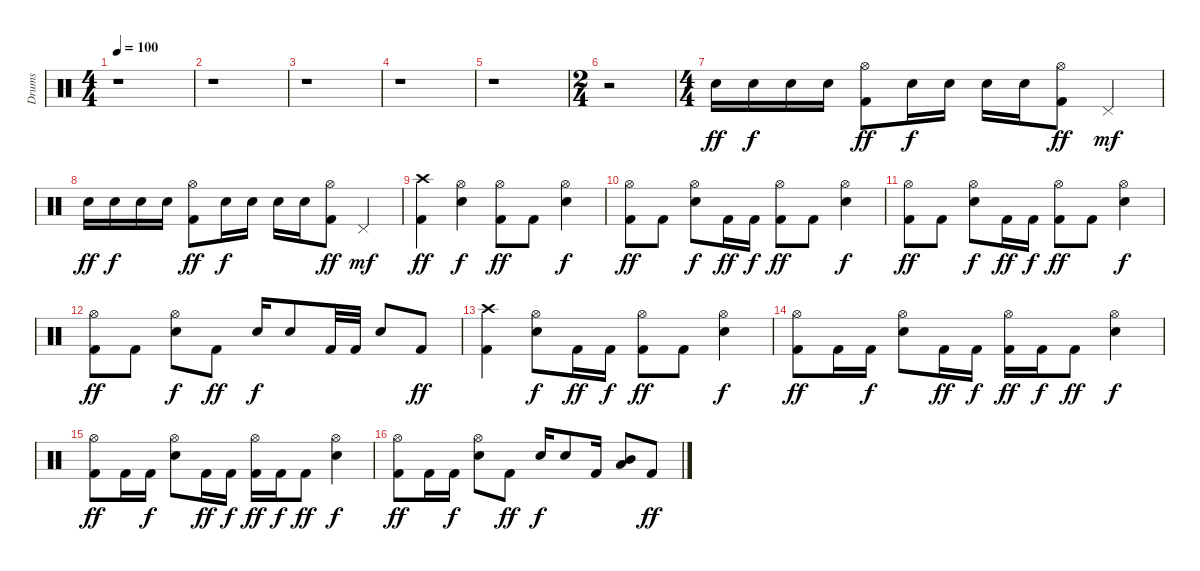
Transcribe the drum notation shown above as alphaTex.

\track ("Drums" "Drums") {instrument percussion}
\staff {score}
\articulation defaults
\ts (4 4)
\tempo 100
\clef neutral
\ks c
r.1{dy ff} |
r.1 |
r.1 |
r.1 |
r.1 |
\ts (2 4)
r.2 |
\ts (4 4)
"Electric Snare (hit)".16 "Electric Snare (hit)".16{dy f} "Electric Snare (hit)".16 "Electric Snare (hit)".16 ("Hi-Hat (open)" "Kick (hit) 2").8{dy ff} "Electric Snare (hit)".16{dy f} "Electric Snare (hit)".16 "Electric Snare (hit)".16 "Electric Snare (hit)".16 ("Hi-Hat (open)" "Kick (hit) 2").8{dy ff} "Pedal Hi-Hat (hit)".4{dy mf} |
"Electric Snare (hit)".16{dy ff} "Electric Snare (hit)".16{dy f} "Electric Snare (hit)".16 "Electric Snare (hit)".16 ("Hi-Hat (open)" "Kick (hit) 2").8{dy ff} "Electric Snare (hit)".16{dy f} "Electric Snare (hit)".16 "Electric Snare (hit)".16 "Electric Snare (hit)".16 ("Hi-Hat (open)" "Kick (hit) 2").8{dy ff} "Pedal Hi-Hat (hit)".4{dy mf} |
("Crash high (hit)" "Kick (hit) 2").4{dy ff} ("Hi-Hat (open)" "Electric Snare (hit)").4{dy f} ("Hi-Hat (open)" "Kick (hit) 2").8{dy ff} "Kick (hit) 2".8 ("Hi-Hat (open)" "Electric Snare (hit)").4{dy f} |
("Hi-Hat (open)" "Kick (hit) 2").8{dy ff} "Kick (hit) 2".8 ("Hi-Hat (open)" "Electric Snare (hit)").8{dy f} "Kick (hit) 2".16{dy ff} "Kick (hit) 2".16{dy f} ("Hi-Hat (open)" "Kick (hit) 2").8{dy ff} "Kick (hit) 2".8 ("Hi-Hat (open)" "Electric Snare (hit)").4{dy f} |
("Hi-Hat (open)" "Kick (hit) 2").8{dy ff} "Kick (hit) 2".8 ("Hi-Hat (open)" "Electric Snare (hit)").8{dy f} "Kick (hit) 2".16{dy ff} "Kick (hit) 2".16{dy f} ("Hi-Hat (open)" "Kick (hit) 2").8{dy ff} "Kick (hit) 2".8 ("Hi-Hat (open)" "Electric Snare (hit)").4{dy f} |
("Hi-Hat (open)" "Kick (hit) 2").8{dy ff} "Kick (hit) 2".8 ("Hi-Hat (open)" "Electric Snare (hit)").8{dy f} "Kick (hit) 2".8{dy ff} "Electric Snare (hit)".16{dy f} "Electric Snare (hit)".8 "Kick (hit) 2".32 "Kick (hit) 2".32 "Electric Snare (hit)".8 "Kick (hit) 2".8{dy ff} |
("Crash high (hit)" "Kick (hit) 2").4 ("Hi-Hat (open)" "Electric Snare (hit)").8{dy f} "Kick (hit) 2".16{dy ff} "Kick (hit) 2".16{dy f} ("Hi-Hat (open)" "Kick (hit) 2").8{dy ff} "Kick (hit) 2".8 ("Hi-Hat (open)" "Electric Snare (hit)").4{dy f} |
("Hi-Hat (open)" "Kick (hit) 2").8{dy ff} "Kick (hit) 2".16 "Kick (hit) 2".16{dy f} ("Hi-Hat (open)" "Electric Snare (hit)").8 "Kick (hit) 2".16{dy ff} "Kick (hit) 2".16{dy f} ("Hi-Hat (open)" "Kick (hit) 2").16{dy ff} "Kick (hit) 2".16{dy f} "Kick (hit) 2".8{dy ff} ("Hi-Hat (open)" "Electric Snare (hit)").4{dy f} |
("Hi-Hat (open)" "Kick (hit) 2").8{dy ff} "Kick (hit) 2".16 "Kick (hit) 2".16{dy f} ("Hi-Hat (open)" "Electric Snare (hit)").8 "Kick (hit) 2".16{dy ff} "Kick (hit) 2".16{dy f} ("Hi-Hat (open)" "Kick (hit) 2").16{dy ff} "Kick (hit) 2".16{dy f} "Kick (hit) 2".8{dy ff} ("Hi-Hat (open)" "Electric Snare (hit)").4{dy f} |
("Hi-Hat (open)" "Kick (hit) 2").8{dy ff} "Kick (hit) 2".16 "Kick (hit) 2".16{dy f} ("Hi-Hat (open)" "Electric Snare (hit)").8 "Kick (hit) 2".8{dy ff} "Electric Snare (hit)".16{dy f} "Electric Snare (hit)".8 "Kick (hit) 2".16 ("Mid Tom (hit)" "Low Tom (hit)").8 "Kick (hit) 2".8{dy ff}
